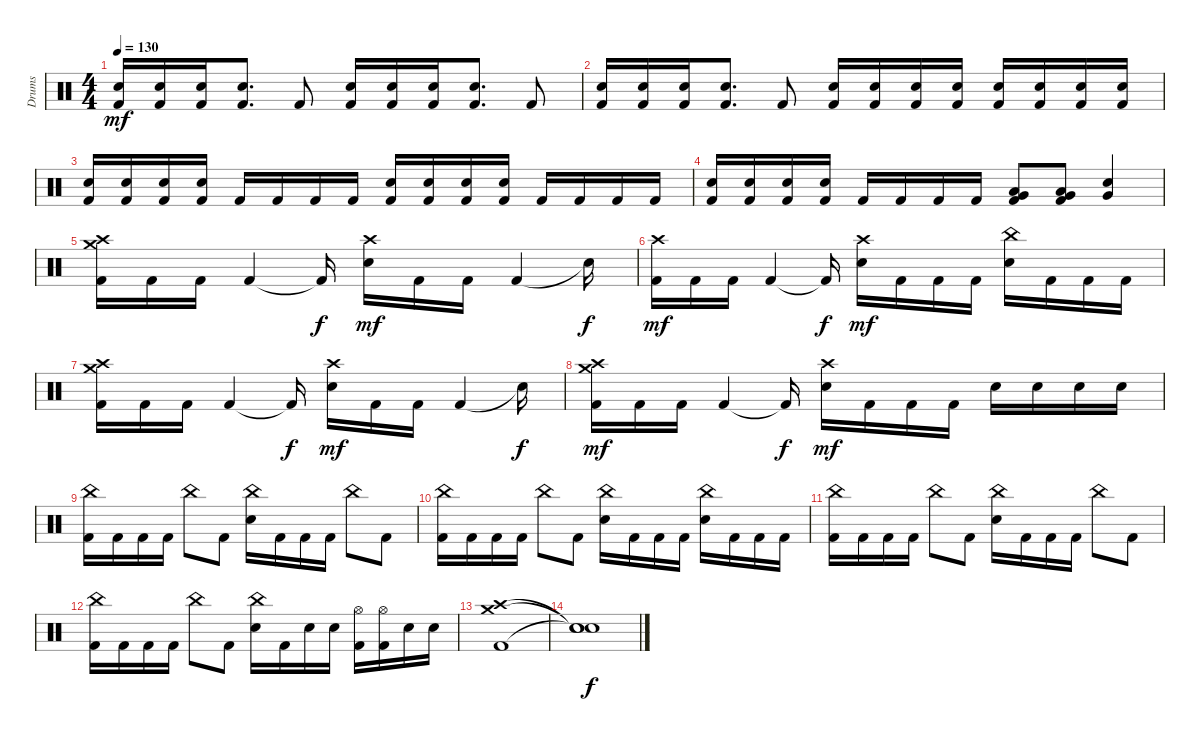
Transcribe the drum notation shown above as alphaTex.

\track ("Drums" "Drums") {instrument percussion}
\staff {score}
\articulation defaults
\ts (4 4)
\tempo 130
\clef neutral
\ks c
("Electric Snare (hit)" "Kick (hit) 2").16{dy mf} ("Electric Snare (hit)" "Kick (hit) 2").16 ("Electric Snare (hit)" "Kick (hit) 2").16 ("Electric Snare (hit)" "Kick (hit) 2").8{d} "Kick (hit) 2".8 ("Electric Snare (hit)" "Kick (hit) 2").16 ("Electric Snare (hit)" "Kick (hit) 2").16 ("Electric Snare (hit)" "Kick (hit) 2").16 ("Electric Snare (hit)" "Kick (hit) 2").8{d} "Kick (hit) 2".8 |
("Electric Snare (hit)" "Kick (hit) 2").16 ("Electric Snare (hit)" "Kick (hit) 2").16 ("Electric Snare (hit)" "Kick (hit) 2").16 ("Electric Snare (hit)" "Kick (hit) 2").8{d} "Kick (hit) 2".8 ("Electric Snare (hit)" "Kick (hit) 2").16 ("Electric Snare (hit)" "Kick (hit) 2").16 ("Electric Snare (hit)" "Kick (hit) 2").16 ("Electric Snare (hit)" "Kick (hit) 2").16 ("Electric Snare (hit)" "Kick (hit) 2").16 ("Electric Snare (hit)" "Kick (hit) 2").16 ("Electric Snare (hit)" "Kick (hit) 2").16 ("Electric Snare (hit)" "Kick (hit) 2").16 |
("Electric Snare (hit)" "Kick (hit) 2").16 ("Electric Snare (hit)" "Kick (hit) 2").16 ("Electric Snare (hit)" "Kick (hit) 2").16 ("Electric Snare (hit)" "Kick (hit) 2").16 "Kick (hit) 2".16 "Kick (hit) 2".16 "Kick (hit) 2".16 "Kick (hit) 2".16 ("Electric Snare (hit)" "Kick (hit) 2").16 ("Electric Snare (hit)" "Kick (hit) 2").16 ("Electric Snare (hit)" "Kick (hit) 2").16 ("Electric Snare (hit)" "Kick (hit) 2").16 "Kick (hit) 2".16 "Kick (hit) 2".16 "Kick (hit) 2".16 "Kick (hit) 2".16 |
("Electric Snare (hit)" "Kick (hit) 2").16 ("Electric Snare (hit)" "Kick (hit) 2").16 ("Electric Snare (hit)" "Kick (hit) 2").16 ("Electric Snare (hit)" "Kick (hit) 2").16 "Kick (hit) 2".16 "Kick (hit) 2".16 "Kick (hit) 2".16 "Kick (hit) 2".16 ("Very Low Tom (hit)" "Low Tom (hit)" "Kick (hit) 2").8 ("Very Low Tom (hit)" "Low Tom (hit)" "Kick (hit) 2").8 ("Very Low Tom (hit)" "Electric Snare (hit)").4 |
("Crash high (hit)" "Crash medium (hit)" "Kick (hit) 2").16 "Kick (hit) 2".16 "Kick (hit) 2".16 "Kick (hit) 2".4 "Kick (hit) 2"{t}.16{dy f} ("Crash high (hit)" "Electric Snare (hit)").16{dy mf} "Kick (hit) 2".16 "Kick (hit) 2".16 "Kick (hit) 2".4 "Snare (hit)"{t}.16{dy f} |
("Crash high (hit)" "Kick (hit) 2").16{dy mf} "Kick (hit) 2".16 "Kick (hit) 2".16 "Kick (hit) 2".4 "Kick (hit) 2"{t}.16{dy f} ("Crash high (hit)" "Electric Snare (hit)").16{dy mf} "Kick (hit) 2".16 "Kick (hit) 2".16 "Kick (hit) 2".16 ("China (hit)" "Electric Snare (hit)").16 "Kick (hit) 2".16 "Kick (hit) 2".16 "Kick (hit) 2".16 |
("Crash high (hit)" "Crash medium (hit)" "Kick (hit) 2").16 "Kick (hit) 2".16 "Kick (hit) 2".16 "Kick (hit) 2".4 "Kick (hit) 2"{t}.16{dy f} ("Crash high (hit)" "Electric Snare (hit)").16{dy mf} "Kick (hit) 2".16 "Kick (hit) 2".16 "Kick (hit) 2".4 "Snare (hit)"{t}.16{dy f} |
("Crash high (hit)" "Crash medium (hit)" "Kick (hit) 2").16{dy mf} "Kick (hit) 2".16 "Kick (hit) 2".16 "Kick (hit) 2".4 "Kick (hit) 2"{t}.16{dy f} ("Crash high (hit)" "Electric Snare (hit)").16{dy mf} "Kick (hit) 2".16 "Kick (hit) 2".16 "Kick (hit) 2".16 "Electric Snare (hit)".16 "Electric Snare (hit)".16 "Electric Snare (hit)".16 "Electric Snare (hit)".16 |
("China (hit)" "Kick (hit) 2").16 "Kick (hit) 2".16 "Kick (hit) 2".16 "Kick (hit) 2".16 "China (hit)".8 "Kick (hit) 2".8 ("China (hit)" "Electric Snare (hit)").16 "Kick (hit) 2".16 "Kick (hit) 2".16 "Kick (hit) 2".16 "China (hit)".8 "Kick (hit) 2".8 |
("China (hit)" "Kick (hit) 2").16 "Kick (hit) 2".16 "Kick (hit) 2".16 "Kick (hit) 2".16 "China (hit)".8 "Kick (hit) 2".8 ("China (hit)" "Electric Snare (hit)").16 "Kick (hit) 2".16 "Kick (hit) 2".16 "Kick (hit) 2".16 ("China (hit)" "Electric Snare (hit)").16 "Kick (hit) 2".16 "Kick (hit) 2".16 "Kick (hit) 2".16 |
("China (hit)" "Kick (hit) 2").16 "Kick (hit) 2".16 "Kick (hit) 2".16 "Kick (hit) 2".16 "China (hit)".8 "Kick (hit) 2".8 ("China (hit)" "Electric Snare (hit)").16 "Kick (hit) 2".16 "Kick (hit) 2".16 "Kick (hit) 2".16 "China (hit)".8 "Kick (hit) 2".8 |
("China (hit)" "Kick (hit) 2").16 "Kick (hit) 2".16 "Kick (hit) 2".16 "Kick (hit) 2".16 "China (hit)".8 "Kick (hit) 2".8 ("China (hit)" "Electric Snare (hit)").16 "Kick (hit) 2".16 "Electric Snare (hit)".16 "Electric Snare (hit)".16 ("Hi-Hat (open)" "Kick (hit) 2").16 ("Hi-Hat (open)" "Kick (hit) 2").16 "Electric Snare (hit)".16 "Electric Snare (hit)".16 |
("Crash high (hit)" "Crash medium (hit)" "Kick (hit) 2").1 |
("Snare (hit)"{t} "Snare (hit)"{t} "Snare (hit)"{t}).1{dy f}
